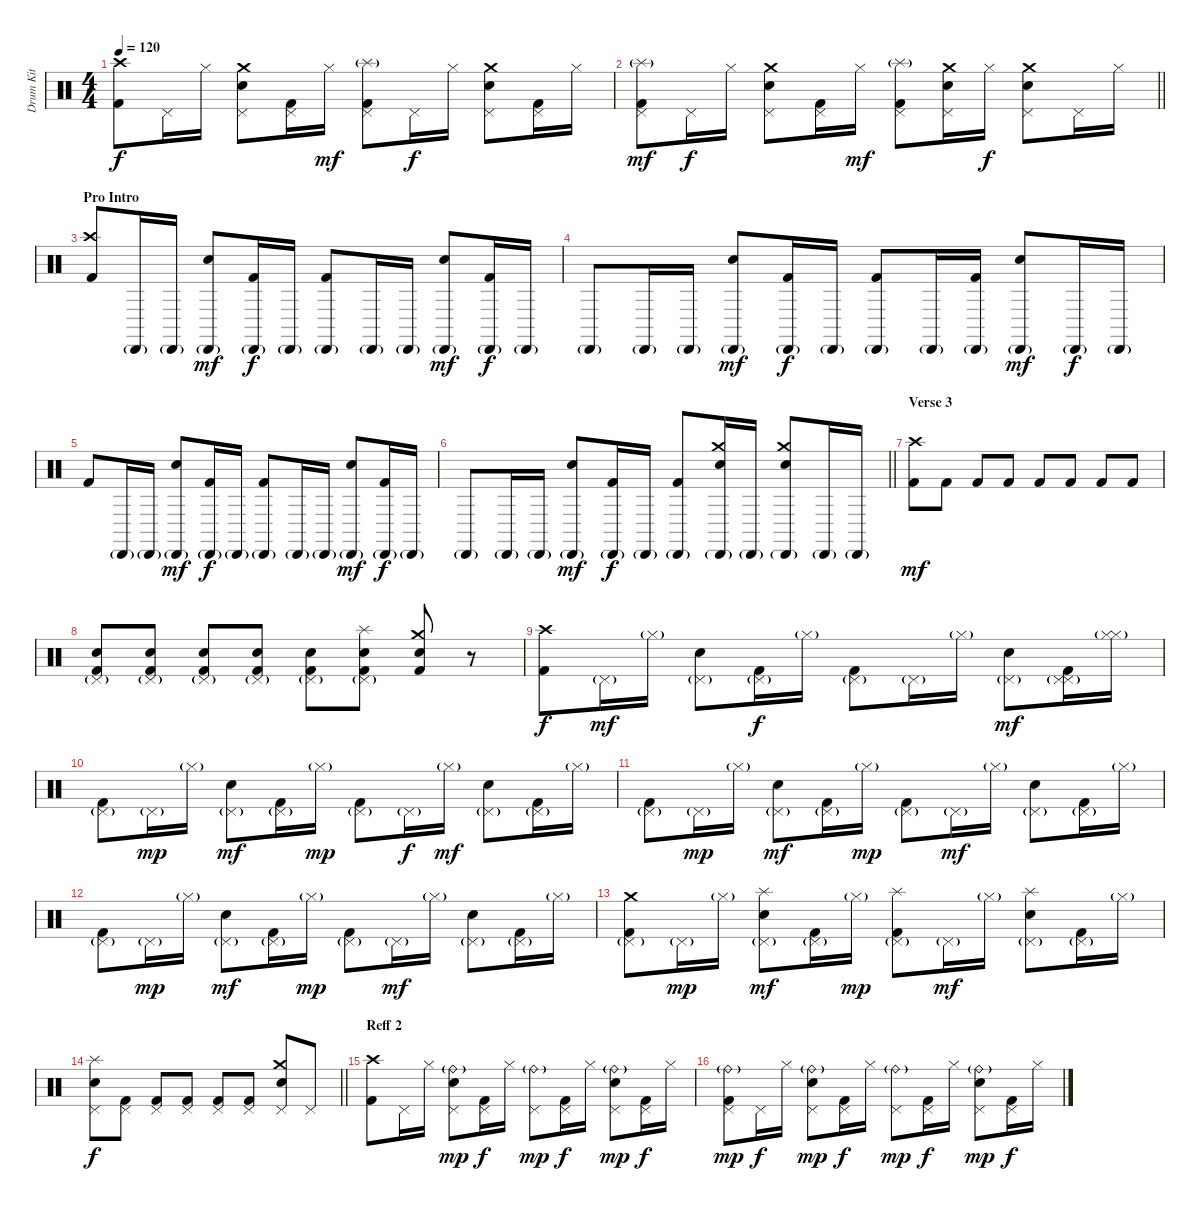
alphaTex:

\track ("Drum Kit" "Drum Kit") {instrument percussion}
\staff {score}
\articulation defaults
\ts (4 4)
\tempo 120
\clef neutral
\ks c
("Crash high (hit)" "Kick (hit) 2").8{dy f} "Pedal Hi-Hat (hit)".16 "Hi-Hat (closed)".16 ("Crash medium (hit)" "Electric Snare (hit)" "Pedal Hi-Hat (hit)").8 ("Kick (hit) 2" "Pedal Hi-Hat (hit)").16 "Hi-Hat (closed)".16{dy mf} ("Kick (hit) 2" "Pedal Hi-Hat (hit)" "Splash (hit)"{g}).8 "Pedal Hi-Hat (hit)".16{dy f} "Hi-Hat (closed)".16 ("Crash medium (hit)" "Electric Snare (hit)" "Pedal Hi-Hat (hit)").8 ("Kick (hit) 2" "Pedal Hi-Hat (hit)").16 "Hi-Hat (closed)".16 |
\barLineRight lightlight
("Kick (hit) 2" "Pedal Hi-Hat (hit)" "Splash (hit)"{g}).8{dy mf} "Pedal Hi-Hat (hit)".16{dy f} "Hi-Hat (closed)".16 ("Crash medium (hit)" "Electric Snare (hit)" "Pedal Hi-Hat (hit)").8 ("Kick (hit) 2" "Pedal Hi-Hat (hit)").16 "Hi-Hat (closed)".16{dy mf} ("Kick (hit) 2" "Pedal Hi-Hat (hit)" "Splash (hit)"{g}).8 ("Crash medium (hit)" "Electric Snare (hit)" "Pedal Hi-Hat (hit)").16 "Hi-Hat (closed)".16{dy f} ("Crash medium (hit)" "Electric Snare (hit)" "Pedal Hi-Hat (hit)").8 "Pedal Hi-Hat (hit)".16 "Hi-Hat (closed)".16 |
\section ("" "Pro Intro")
("Crash high (hit)" "Kick (hit) 2").8 "Cabasa (hit)"{g}.16 "Cabasa (hit)"{g}.16 ("Snare (hit) 2" "Cabasa (hit)"{g}).8{dy mf} ("Kick (hit) 2" "Cabasa (hit)"{g}).16{dy f} "Cabasa (hit)"{g}.16 ("Kick (hit) 2" "Cabasa (hit)"{g}).8 "Cabasa (hit)"{g}.16 "Cabasa (hit)"{g}.16 ("Snare (hit) 2" "Cabasa (hit)"{g}).8{dy mf} ("Kick (hit) 2" "Cabasa (hit)"{g}).16{dy f} "Cabasa (hit)"{g}.16 |
"Cabasa (hit)"{g}.8 "Cabasa (hit)"{g}.16 "Cabasa (hit)"{g}.16 ("Snare (hit) 2" "Cabasa (hit)"{g}).8{dy mf} ("Kick (hit) 2" "Cabasa (hit)"{g}).16{dy f} "Cabasa (hit)"{g}.16 ("Kick (hit) 2" "Cabasa (hit)"{g}).8 "Cabasa (hit)"{g}.16 ("Kick (hit) 2" "Cabasa (hit)"{g}).16 ("Snare (hit) 2" "Cabasa (hit)"{g}).8{dy mf} "Cabasa (hit)"{g}.16{dy f} "Cabasa (hit)"{g}.16 |
"Kick (hit) 2".8 "Cabasa (hit)"{g}.16 "Cabasa (hit)"{g}.16 ("Snare (hit) 2" "Cabasa (hit)"{g}).8{dy mf} ("Kick (hit) 2" "Cabasa (hit)"{g}).16{dy f} "Cabasa (hit)"{g}.16 ("Kick (hit) 2" "Cabasa (hit)"{g}).8 "Cabasa (hit)"{g}.16 "Cabasa (hit)"{g}.16 ("Snare (hit) 2" "Cabasa (hit)"{g}).8{dy mf} ("Kick (hit) 2" "Cabasa (hit)"{g}).16{dy f} "Cabasa (hit)"{g}.16 |
\barLineRight lightlight "Cabasa (hit)"{g}.8 "Cabasa (hit)"{g}.16 "Cabasa (hit)"{g}.16
("Snare (hit) 2" "Cabasa (hit)"{g}).8{dy mf} ("Kick (hit) 2" "Cabasa (hit)"{g}).16{dy f} "Cabasa (hit)"{g}.16 ("Kick (hit) 2" "Cabasa (hit)"{g}).8 ("Crash medium (hit)" "Cabasa (hit)"{g} "Electric Snare (hit)").16 "Cabasa (hit)"{g}.16 ("Electric Snare (hit)" "Crash medium (hit)" "Cabasa (hit)"{g}).8 "Cabasa (hit)"{g}.16 "Cabasa (hit)"{g}.16 |
\section ("" "Verse 3")
("Kick (hit) 2" "Crash high (hit)").8{dy mf} "Kick (hit) 2".8 "Kick (hit) 2".8 "Kick (hit) 2".8 "Kick (hit) 2".8 "Kick (hit) 2".8 "Kick (hit) 2".8 "Kick (hit) 2".8 |
("Electric Snare (hit)" "Kick (hit) 2" "Pedal Hi-Hat (hit)"{g}).8 ("Electric Snare (hit)" "Kick (hit) 2" "Pedal Hi-Hat (hit)"{g}).8 ("Electric Snare (hit)" "Kick (hit) 2" "Pedal Hi-Hat (hit)"{g}).8 ("Electric Snare (hit)" "Kick (hit) 2" "Pedal Hi-Hat (hit)"{g}).8 ("Pedal Hi-Hat (hit)"{g} "Electric Snare (hit)" "Kick (hit) 2").8 ("Splash (hit)" "Pedal Hi-Hat (hit)"{g} "Electric Snare (hit)" "Kick (hit) 2").8 ("Crash medium (hit)" "Electric Snare (hit)" "Kick (hit) 2").8 r.8 |
("Crash high (hit)" "Kick (hit) 2").8{dy f} "Pedal Hi-Hat (hit)"{g}.16{dy mf} "Hi-Hat (closed)"{g}.16 ("Pedal Hi-Hat (hit)"{g} "Electric Snare (hit)").8 ("Kick (hit) 2" "Pedal Hi-Hat (hit)"{g}).16{dy f} "Hi-Hat (closed)"{g}.16 ("Kick (hit) 2" "Pedal Hi-Hat (hit)"{g}).8 "Pedal Hi-Hat (hit)"{g}.16 "Hi-Hat (closed)"{g}.16 ("Pedal Hi-Hat (hit)"{g} "Electric Snare (hit)").8{dy mf} ("Kick (hit) 2" "Pedal Hi-Hat (hit)" "Pedal Hi-Hat (hit)"{g}).16 ("Hi-Hat (closed)" "Hi-Hat (closed)"{g}).16 |
("Pedal Hi-Hat (hit)"{g} "Kick (hit) 2").8 "Pedal Hi-Hat (hit)"{g}.16{dy mp} "Hi-Hat (closed)"{g}.16 ("Pedal Hi-Hat (hit)"{g} "Electric Snare (hit)").8{dy mf} ("Pedal Hi-Hat (hit)"{g} "Kick (hit) 2").16 "Hi-Hat (closed)"{g}.16{dy mp} ("Kick (hit) 2" "Pedal Hi-Hat (hit)"{g}).8 "Pedal Hi-Hat (hit)"{g}.16{dy f} "Hi-Hat (closed)"{g}.16{dy mf} ("Pedal Hi-Hat (hit)"{g} "Electric Snare (hit)").8 ("Pedal Hi-Hat (hit)"{g} "Kick (hit) 2").16 "Hi-Hat (closed)"{g}.16 |
("Pedal Hi-Hat (hit)"{g} "Kick (hit) 2").8 "Pedal Hi-Hat (hit)"{g}.16{dy mp} "Hi-Hat (closed)"{g}.16 ("Pedal Hi-Hat (hit)"{g} "Electric Snare (hit)").8{dy mf} ("Pedal Hi-Hat (hit)"{g} "Kick (hit) 2").16 "Hi-Hat (closed)"{g}.16{dy mp} ("Kick (hit) 2" "Pedal Hi-Hat (hit)"{g}).8 "Pedal Hi-Hat (hit)"{g}.16{dy mf} "Hi-Hat (closed)"{g}.16 ("Pedal Hi-Hat (hit)"{g} "Electric Snare (hit)").8 ("Pedal Hi-Hat (hit)"{g} "Kick (hit) 2").16 "Hi-Hat (closed)"{g}.16 |
("Pedal Hi-Hat (hit)"{g} "Kick (hit) 2").8 "Pedal Hi-Hat (hit)"{g}.16{dy mp} "Hi-Hat (closed)"{g}.16 ("Pedal Hi-Hat (hit)"{g} "Electric Snare (hit)").8{dy mf} ("Pedal Hi-Hat (hit)"{g} "Kick (hit) 2").16 "Hi-Hat (closed)"{g}.16{dy mp} ("Kick (hit) 2" "Pedal Hi-Hat (hit)"{g}).8 "Pedal Hi-Hat (hit)"{g}.16{dy mf} "Hi-Hat (closed)"{g}.16 ("Pedal Hi-Hat (hit)"{g} "Electric Snare (hit)").8 ("Pedal Hi-Hat (hit)"{g} "Kick (hit) 2").16 "Hi-Hat (closed)"{g}.16 |
("Pedal Hi-Hat (hit)"{g} "Kick (hit) 2" "Crash medium (hit)").8 "Pedal Hi-Hat (hit)"{g}.16{dy mp} "Hi-Hat (closed)"{g}.16 ("Pedal Hi-Hat (hit)"{g} "Electric Snare (hit)" "Splash (hit)").8{dy mf} ("Pedal Hi-Hat (hit)"{g} "Kick (hit) 2").16 "Hi-Hat (closed)"{g}.16{dy mp} ("Kick (hit) 2" "Pedal Hi-Hat (hit)"{g} "Splash (hit)").8 "Pedal Hi-Hat (hit)"{g}.16{dy mf} "Hi-Hat (closed)"{g}.16 ("Pedal Hi-Hat (hit)"{g} "Electric Snare (hit)" "Splash (hit)").8 ("Pedal Hi-Hat (hit)"{g} "Kick (hit) 2").16 "Hi-Hat (closed)"{g}.16 |
\barLineRight lightlight
("Splash (hit)" "Electric Snare (hit)" "Pedal Hi-Hat (hit)").8{dy f} ("Pedal Hi-Hat (hit)" "Kick (hit) 2").8 ("Pedal Hi-Hat (hit)" "Kick (hit) 2").8 ("Pedal Hi-Hat (hit)" "Kick (hit) 2").8 ("Kick (hit) 2" "Pedal Hi-Hat (hit)").8 ("Pedal Hi-Hat (hit)" "Kick (hit) 2").8 ("Pedal Hi-Hat (hit)" "Electric Snare (hit)" "Crash medium (hit)").8 "Pedal Hi-Hat (hit)".8 |
\section ("" "Reff 2")
("Crash high (hit)" "Kick (hit) 2").8 "Pedal Hi-Hat (hit)".16 "Hi-Hat (closed)".16 ("Electric Snare (hit)" "Pedal Hi-Hat (hit)" "Ride (bell)"{g}).8{dy mp} ("Kick (hit) 2" "Pedal Hi-Hat (hit)").16{dy f} "Hi-Hat (closed)".16 ("Pedal Hi-Hat (hit)" "Ride (bell)"{g}).8{dy mp} ("Kick (hit) 2" "Pedal Hi-Hat (hit)").16{dy f} "Hi-Hat (closed)".16 ("Electric Snare (hit)" "Pedal Hi-Hat (hit)" "Ride (bell)"{g}).8{dy mp} ("Kick (hit) 2" "Pedal Hi-Hat (hit)").16{dy f} "Hi-Hat (closed)".16 |
("Kick (hit) 2" "Pedal Hi-Hat (hit)" "Ride (bell)"{g}).8{dy mp} "Pedal Hi-Hat (hit)".16{dy f} "Hi-Hat (closed)".16 ("Electric Snare (hit)" "Pedal Hi-Hat (hit)" "Ride (bell)"{g}).8{dy mp} ("Kick (hit) 2" "Pedal Hi-Hat (hit)").16{dy f} "Hi-Hat (closed)".16 ("Pedal Hi-Hat (hit)" "Ride (bell)"{g}).8{dy mp} ("Kick (hit) 2" "Pedal Hi-Hat (hit)").16{dy f} "Hi-Hat (closed)".16 ("Electric Snare (hit)" "Pedal Hi-Hat (hit)" "Ride (bell)"{g}).8{dy mp} ("Kick (hit) 2" "Pedal Hi-Hat (hit)").16{dy f} "Hi-Hat (closed)".16
